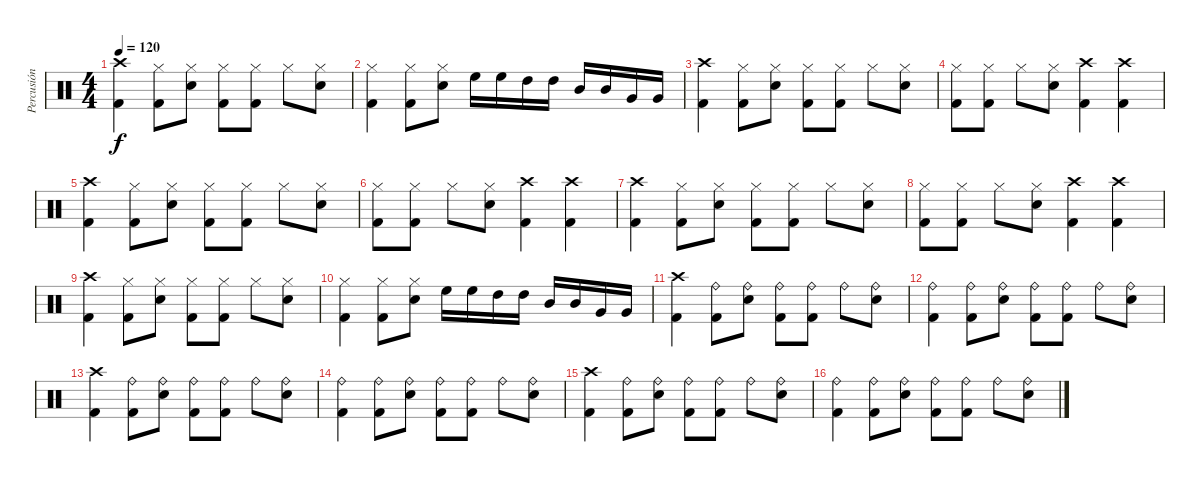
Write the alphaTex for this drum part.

\track ("Percusión" "Percusión") {instrument percussion}
\staff {score}
\articulation defaults
\ts (4 4)
\tempo 120
\clef neutral
\ks c
("Crash high (hit)" "Kick (hit) 2").4{dy f} ("Hi-Hat (closed)" "Kick (hit) 2").8 ("Hi-Hat (closed)" "Snare (hit) 2").8 ("Hi-Hat (closed)" "Kick (hit) 2").8 ("Hi-Hat (closed)" "Kick (hit) 2").8 "Hi-Hat (closed)".8 ("Hi-Hat (closed)" "Snare (hit) 2").8 |
("Hi-Hat (closed)" "Kick (hit) 2").4 ("Hi-Hat (closed)" "Kick (hit) 2").8 ("Hi-Hat (closed)" "Snare (hit) 2").8 "High Floor Tom (hit)".16 "High Floor Tom (hit)".16 "High Tom (hit)".16 "High Tom (hit)".16 "Mid Tom (hit)".16 "Mid Tom (hit)".16 "Very Low Tom (hit)".16 "Very Low Tom (hit)".16 |
("Crash high (hit)" "Kick (hit) 2").4 ("Hi-Hat (closed)" "Kick (hit) 2").8 ("Hi-Hat (closed)" "Snare (hit) 2").8 ("Hi-Hat (closed)" "Kick (hit) 2").8 ("Hi-Hat (closed)" "Kick (hit) 2").8 "Hi-Hat (closed)".8 ("Hi-Hat (closed)" "Snare (hit) 2").8 |
("Hi-Hat (closed)" "Kick (hit) 2").8 ("Hi-Hat (closed)" "Kick (hit) 2").8 "Hi-Hat (closed)".8 ("Hi-Hat (closed)" "Snare (hit) 2").8 ("Crash high (hit)" "Kick (hit) 2").4 ("Crash high (hit)" "Kick (hit) 2").4 |
("Crash high (hit)" "Kick (hit) 2").4 ("Hi-Hat (closed)" "Kick (hit) 2").8 ("Hi-Hat (closed)" "Snare (hit) 2").8 ("Hi-Hat (closed)" "Kick (hit) 2").8 ("Hi-Hat (closed)" "Kick (hit) 2").8 "Hi-Hat (closed)".8 ("Hi-Hat (closed)" "Snare (hit) 2").8 |
("Hi-Hat (closed)" "Kick (hit) 2").8 ("Hi-Hat (closed)" "Kick (hit) 2").8 "Hi-Hat (closed)".8 ("Hi-Hat (closed)" "Snare (hit) 2").8 ("Crash high (hit)" "Kick (hit) 2").4 ("Crash high (hit)" "Kick (hit) 2").4 |
("Crash high (hit)" "Kick (hit) 2").4 ("Hi-Hat (closed)" "Kick (hit) 2").8 ("Hi-Hat (closed)" "Snare (hit) 2").8 ("Hi-Hat (closed)" "Kick (hit) 2").8 ("Hi-Hat (closed)" "Kick (hit) 2").8 "Hi-Hat (closed)".8 ("Hi-Hat (closed)" "Snare (hit) 2").8 |
("Hi-Hat (closed)" "Kick (hit) 2").8 ("Hi-Hat (closed)" "Kick (hit) 2").8 "Hi-Hat (closed)".8 ("Hi-Hat (closed)" "Snare (hit) 2").8 ("Crash high (hit)" "Kick (hit) 2").4 ("Crash high (hit)" "Kick (hit) 2").4 |
("Crash high (hit)" "Kick (hit) 2").4 ("Hi-Hat (closed)" "Kick (hit) 2").8 ("Hi-Hat (closed)" "Snare (hit) 2").8 ("Hi-Hat (closed)" "Kick (hit) 2").8 ("Hi-Hat (closed)" "Kick (hit) 2").8 "Hi-Hat (closed)".8 ("Hi-Hat (closed)" "Snare (hit) 2").8 |
("Hi-Hat (closed)" "Kick (hit) 2").4 ("Hi-Hat (closed)" "Kick (hit) 2").8 ("Hi-Hat (closed)" "Snare (hit) 2").8 "High Floor Tom (hit)".16 "High Floor Tom (hit)".16 "High Tom (hit)".16 "High Tom (hit)".16 "Mid Tom (hit)".16 "Mid Tom (hit)".16 "Very Low Tom (hit)".16 "Very Low Tom (hit)".16 |
("Crash high (hit)" "Kick (hit) 2").4 ("Ride (bell)" "Kick (hit) 2").8 ("Ride (bell)" "Snare (hit) 2").8 ("Ride (bell)" "Kick (hit) 2").8 ("Ride (bell)" "Kick (hit) 2").8 "Ride (bell)".8 ("Ride (bell)" "Snare (hit) 2").8 |
("Ride (bell)" "Kick (hit) 2").4 ("Ride (bell)" "Kick (hit) 2").8 ("Ride (bell)" "Snare (hit) 2").8 ("Ride (bell)" "Kick (hit) 2").8 ("Ride (bell)" "Kick (hit) 2").8 "Ride (bell)".8 ("Ride (bell)" "Snare (hit) 2").8 |
("Crash high (hit)" "Kick (hit) 2").4 ("Ride (bell)" "Kick (hit) 2").8 ("Ride (bell)" "Snare (hit) 2").8 ("Ride (bell)" "Kick (hit) 2").8 ("Ride (bell)" "Kick (hit) 2").8 "Ride (bell)".8 ("Ride (bell)" "Snare (hit) 2").8 |
("Ride (bell)" "Kick (hit) 2").4 ("Ride (bell)" "Kick (hit) 2").8 ("Ride (bell)" "Snare (hit) 2").8 ("Ride (bell)" "Kick (hit) 2").8 ("Ride (bell)" "Kick (hit) 2").8 "Ride (bell)".8 ("Ride (bell)" "Snare (hit) 2").8 |
("Crash high (hit)" "Kick (hit) 2").4 ("Ride (bell)" "Kick (hit) 2").8 ("Ride (bell)" "Snare (hit) 2").8 ("Ride (bell)" "Kick (hit) 2").8 ("Ride (bell)" "Kick (hit) 2").8 "Ride (bell)".8 ("Ride (bell)" "Snare (hit) 2").8 |
("Ride (bell)" "Kick (hit) 2").4 ("Ride (bell)" "Kick (hit) 2").8 ("Ride (bell)" "Snare (hit) 2").8 ("Ride (bell)" "Kick (hit) 2").8 ("Ride (bell)" "Kick (hit) 2").8 "Ride (bell)".8 ("Ride (bell)" "Snare (hit) 2").8
